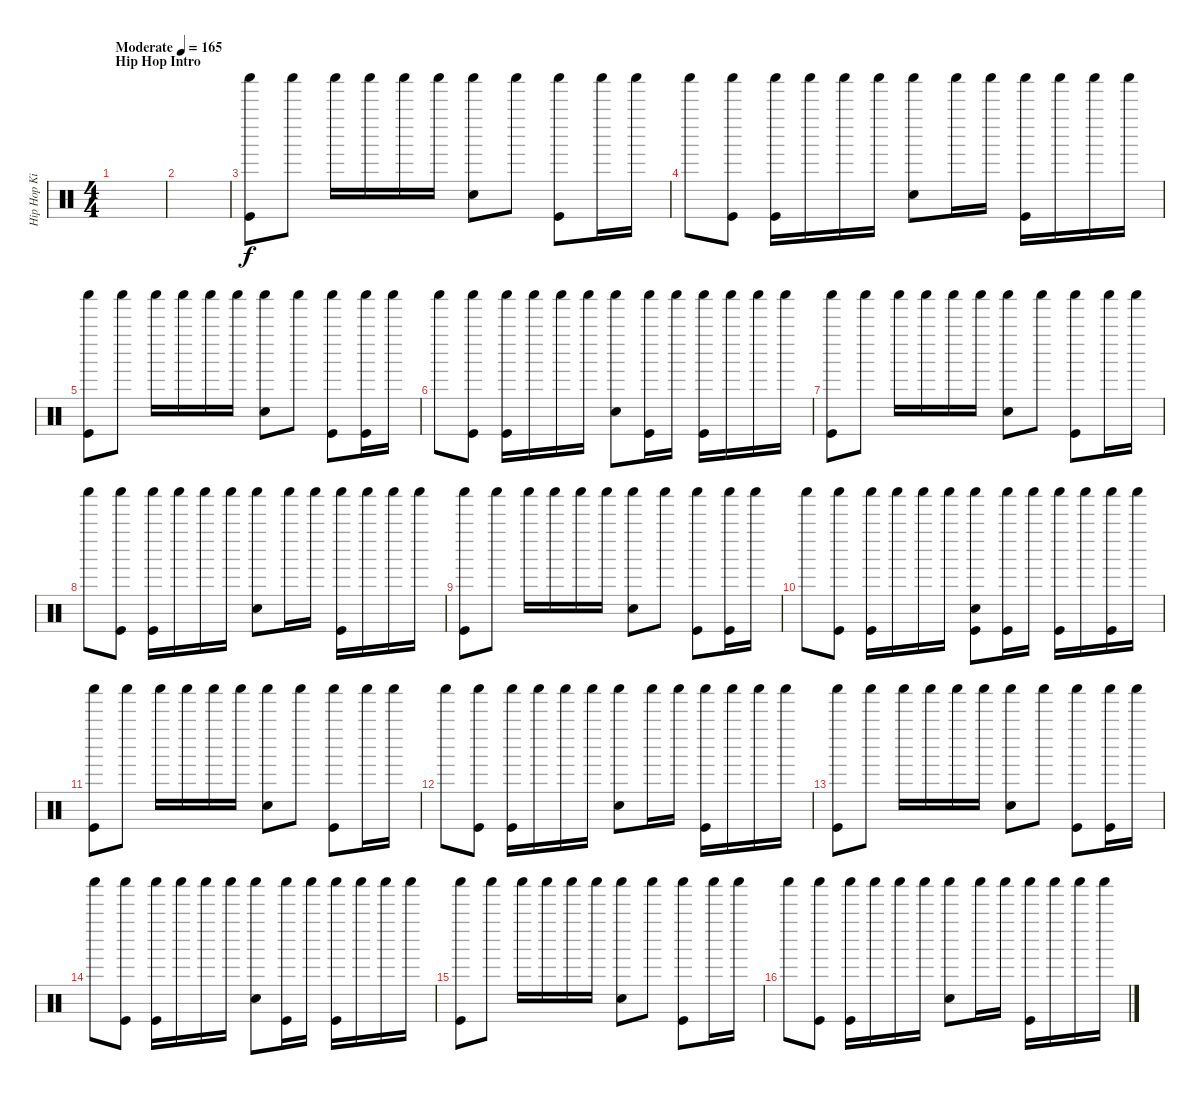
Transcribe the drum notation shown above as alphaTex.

\track ("Hip Hop Kit" "Hip Hop Ki") {instrument percussion}
\staff {score}
\articulation defaults
\ts (4 4)
\section ("" "Hip Hop Intro")
\tempo (165 "Moderate")
\clef neutral
\ks c
|
|
("Shaker (hit)" "Kick (hit)").8 "Shaker (hit)".8 "Shaker (hit)".16 "Shaker (hit)".16 "Shaker (hit)".16 "Shaker (hit)".16 ("Shaker (hit)" "Snare (hit) 2").8 "Shaker (hit)".8 ("Shaker (hit)" "Kick (hit)").8 "Shaker (hit)".16 "Shaker (hit)".16 |
"Shaker (hit)".8 ("Shaker (hit)" "Kick (hit)").8 ("Shaker (hit)" "Kick (hit)").16 "Shaker (hit)".16 "Shaker (hit)".16 "Shaker (hit)".16 ("Shaker (hit)" "Snare (hit) 2").8 "Shaker (hit)".16 "Shaker (hit)".16 ("Shaker (hit)" "Kick (hit)").16 "Shaker (hit)".16 "Shaker (hit)".16 "Shaker (hit)".16 |
("Shaker (hit)" "Kick (hit)").8 "Shaker (hit)".8 "Shaker (hit)".16 "Shaker (hit)".16 "Shaker (hit)".16 "Shaker (hit)".16 ("Shaker (hit)" "Snare (hit) 2").8 "Shaker (hit)".8 ("Shaker (hit)" "Kick (hit)").8 ("Shaker (hit)" "Kick (hit)").16 "Shaker (hit)".16 |
"Shaker (hit)".8 ("Shaker (hit)" "Kick (hit)").8 ("Shaker (hit)" "Kick (hit)").16 "Shaker (hit)".16 "Shaker (hit)".16 "Shaker (hit)".16 ("Shaker (hit)" "Snare (hit) 2").8 ("Shaker (hit)" "Kick (hit)").16 "Shaker (hit)".16 ("Shaker (hit)" "Kick (hit)").16 "Shaker (hit)".16 "Shaker (hit)".16 "Shaker (hit)".16 |
("Shaker (hit)" "Kick (hit)").8 "Shaker (hit)".8 "Shaker (hit)".16 "Shaker (hit)".16 "Shaker (hit)".16 "Shaker (hit)".16 ("Shaker (hit)" "Snare (hit) 2").8 "Shaker (hit)".8 ("Shaker (hit)" "Kick (hit)").8 "Shaker (hit)".16 "Shaker (hit)".16 |
"Shaker (hit)".8 ("Shaker (hit)" "Kick (hit)").8 ("Shaker (hit)" "Kick (hit)").16 "Shaker (hit)".16 "Shaker (hit)".16 "Shaker (hit)".16 ("Shaker (hit)" "Snare (hit) 2").8 "Shaker (hit)".16 "Shaker (hit)".16 ("Shaker (hit)" "Kick (hit)").16 "Shaker (hit)".16 "Shaker (hit)".16 "Shaker (hit)".16 |
("Shaker (hit)" "Kick (hit)").8 "Shaker (hit)".8 "Shaker (hit)".16 "Shaker (hit)".16 "Shaker (hit)".16 "Shaker (hit)".16 ("Shaker (hit)" "Snare (hit) 2").8 "Shaker (hit)".8 ("Shaker (hit)" "Kick (hit)").8 ("Shaker (hit)" "Kick (hit)").16 "Shaker (hit)".16 |
"Shaker (hit)".8 ("Shaker (hit)" "Kick (hit)").8 ("Shaker (hit)" "Kick (hit)").16 "Shaker (hit)".16 "Shaker (hit)".16 "Shaker (hit)".16 ("Shaker (hit)" "Snare (hit) 2" "Kick (hit)").8 ("Shaker (hit)" "Kick (hit)").16 "Shaker (hit)".16 ("Shaker (hit)" "Kick (hit)").16 "Shaker (hit)".16 ("Shaker (hit)" "Kick (hit)").16 "Shaker (hit)".16 |
("Shaker (hit)" "Kick (hit)").8 "Shaker (hit)".8 "Shaker (hit)".16 "Shaker (hit)".16 "Shaker (hit)".16 "Shaker (hit)".16 ("Shaker (hit)" "Snare (hit) 2").8 "Shaker (hit)".8 ("Shaker (hit)" "Kick (hit)").8 "Shaker (hit)".16 "Shaker (hit)".16 |
"Shaker (hit)".8 ("Shaker (hit)" "Kick (hit)").8 ("Shaker (hit)" "Kick (hit)").16 "Shaker (hit)".16 "Shaker (hit)".16 "Shaker (hit)".16 ("Shaker (hit)" "Snare (hit) 2").8 "Shaker (hit)".16 "Shaker (hit)".16 ("Shaker (hit)" "Kick (hit)").16 "Shaker (hit)".16 "Shaker (hit)".16 "Shaker (hit)".16 |
("Shaker (hit)" "Kick (hit)").8 "Shaker (hit)".8 "Shaker (hit)".16 "Shaker (hit)".16 "Shaker (hit)".16 "Shaker (hit)".16 ("Shaker (hit)" "Snare (hit) 2").8 "Shaker (hit)".8 ("Shaker (hit)" "Kick (hit)").8 ("Shaker (hit)" "Kick (hit)").16 "Shaker (hit)".16 |
"Shaker (hit)".8 ("Shaker (hit)" "Kick (hit)").8 ("Shaker (hit)" "Kick (hit)").16 "Shaker (hit)".16 "Shaker (hit)".16 "Shaker (hit)".16 ("Shaker (hit)" "Snare (hit) 2").8 ("Shaker (hit)" "Kick (hit)").16 "Shaker (hit)".16 ("Shaker (hit)" "Kick (hit)").16 "Shaker (hit)".16 "Shaker (hit)".16 "Shaker (hit)".16 |
("Shaker (hit)" "Kick (hit)").8 "Shaker (hit)".8 "Shaker (hit)".16 "Shaker (hit)".16 "Shaker (hit)".16 "Shaker (hit)".16 ("Shaker (hit)" "Snare (hit) 2").8 "Shaker (hit)".8 ("Shaker (hit)" "Kick (hit)").8 "Shaker (hit)".16 "Shaker (hit)".16 |
"Shaker (hit)".8 ("Shaker (hit)" "Kick (hit)").8 ("Shaker (hit)" "Kick (hit)").16 "Shaker (hit)".16 "Shaker (hit)".16 "Shaker (hit)".16 ("Shaker (hit)" "Snare (hit) 2").8 "Shaker (hit)".16 "Shaker (hit)".16 ("Shaker (hit)" "Kick (hit)").16 "Shaker (hit)".16 "Shaker (hit)".16 "Shaker (hit)".16
